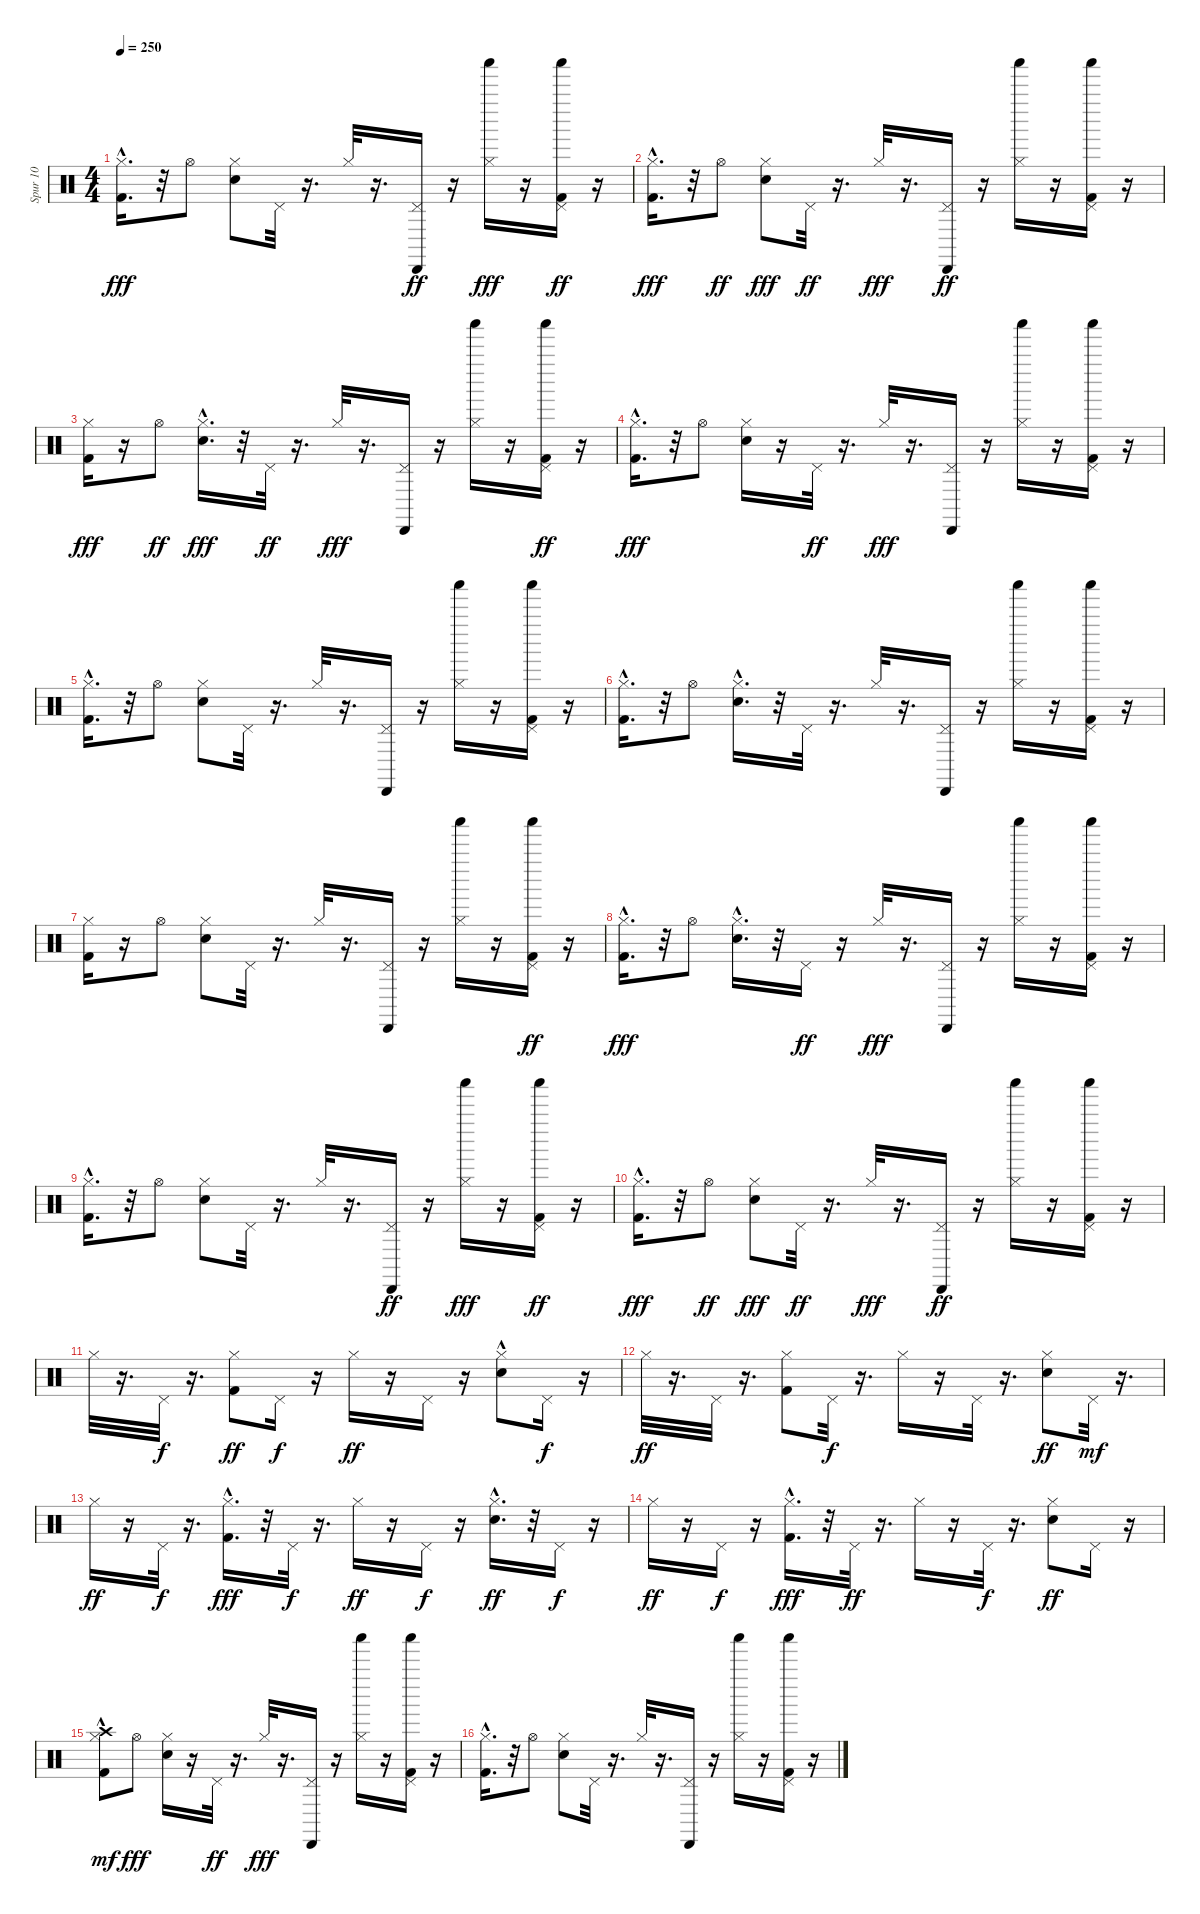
\track ("Spur 10" "Spur 10") {instrument percussion}
\staff {score}
\articulation defaults
\ts (4 4)
\tempo 250
\clef neutral
\ks c
("Kick (hit) 2"{hac} "Hi-Hat (closed)").16{d dy fff} r.32 "Hi-Hat (open)".8 ("Snare (hit) 2" "Hi-Hat (closed)").8 "Pedal Hi-Hat (hit)".32 r.16{d} "Hi-Hat (closed)".32 r.16{d} ("Pedal Hi-Hat (hit)" "Cabasa (hit)").16{dy ff} r.16 ("Hi-Hat (closed)" "Shaker (hit)").16{dy fff} r.16 ("Kick (hit) 2" "Pedal Hi-Hat (hit)" "Shaker (hit)").16{dy ff} r.16 |
("Kick (hit) 2"{hac} "Hi-Hat (closed)").16{d dy fff} r.32 "Hi-Hat (open)".8{dy ff} ("Snare (hit) 2" "Hi-Hat (closed)").8{dy fff} "Pedal Hi-Hat (hit)".32{dy ff} r.16{d} "Hi-Hat (closed)".32{dy fff} r.16{d} ("Pedal Hi-Hat (hit)" "Cabasa (hit)").16{dy ff} r.16 ("Hi-Hat (closed)" "Shaker (hit)").16 r.16 ("Kick (hit) 2" "Pedal Hi-Hat (hit)" "Shaker (hit)").16 r.16 |
("Kick (hit) 2" "Hi-Hat (closed)").16{dy fff} r.16 "Hi-Hat (open)".8{dy ff} ("Snare (hit) 2"{hac} "Hi-Hat (closed)").16{d dy fff} r.32 "Pedal Hi-Hat (hit)".32{dy ff} r.16{d} "Hi-Hat (closed)".32{dy fff} r.16{d} ("Pedal Hi-Hat (hit)" "Cabasa (hit)").16 r.16 ("Hi-Hat (closed)" "Shaker (hit)").16 r.16 ("Kick (hit) 2" "Pedal Hi-Hat (hit)" "Shaker (hit)").16{dy ff} r.16 |
("Kick (hit) 2"{hac} "Hi-Hat (closed)").16{d dy fff} r.32 "Hi-Hat (open)".8 ("Snare (hit) 2" "Hi-Hat (closed)").16 r.16 "Pedal Hi-Hat (hit)".32{dy ff} r.16{d} "Hi-Hat (closed)".32{dy fff} r.16{d} ("Pedal Hi-Hat (hit)" "Cabasa (hit)").16 r.16 ("Hi-Hat (closed)" "Shaker (hit)").16 r.16 ("Kick (hit) 2" "Pedal Hi-Hat (hit)" "Shaker (hit)").16 r.16 |
("Kick (hit) 2"{hac} "Hi-Hat (closed)").16{d} r.32 "Hi-Hat (open)".8 ("Snare (hit) 2" "Hi-Hat (closed)").8 "Pedal Hi-Hat (hit)".32 r.16{d} "Hi-Hat (closed)".32 r.16{d} ("Pedal Hi-Hat (hit)" "Cabasa (hit)").16 r.16 ("Hi-Hat (closed)" "Shaker (hit)").16 r.16 ("Kick (hit) 2" "Pedal Hi-Hat (hit)" "Shaker (hit)").16 r.16 |
("Kick (hit) 2"{hac} "Hi-Hat (closed)").16{d} r.32 "Hi-Hat (open)".8 ("Snare (hit) 2"{hac} "Hi-Hat (closed)").16{d} r.32 "Pedal Hi-Hat (hit)".32 r.16{d} "Hi-Hat (closed)".32 r.16{d} ("Pedal Hi-Hat (hit)" "Cabasa (hit)").16 r.16 ("Hi-Hat (closed)" "Shaker (hit)").16 r.16 ("Kick (hit) 2" "Pedal Hi-Hat (hit)" "Shaker (hit)").16 r.16 |
("Kick (hit) 2" "Hi-Hat (closed)").16 r.16 "Hi-Hat (open)".8 ("Snare (hit) 2" "Hi-Hat (closed)").8 "Pedal Hi-Hat (hit)".32 r.16{d} "Hi-Hat (closed)".32 r.16{d} ("Pedal Hi-Hat (hit)" "Cabasa (hit)").16 r.16 ("Hi-Hat (closed)" "Shaker (hit)").16 r.16 ("Kick (hit) 2" "Pedal Hi-Hat (hit)" "Shaker (hit)").16{dy ff} r.16 |
("Kick (hit) 2"{hac} "Hi-Hat (closed)").16{d dy fff} r.32 "Hi-Hat (open)".8 ("Snare (hit) 2"{hac} "Hi-Hat (closed)").16{d} r.32 "Pedal Hi-Hat (hit)".16{dy ff} r.16 "Hi-Hat (closed)".32{dy fff} r.16{d} ("Pedal Hi-Hat (hit)" "Cabasa (hit)").16 r.16 ("Hi-Hat (closed)" "Shaker (hit)").16 r.16 ("Kick (hit) 2" "Pedal Hi-Hat (hit)" "Shaker (hit)").16 r.16 |
("Kick (hit) 2"{hac} "Hi-Hat (closed)").16{d} r.32 "Hi-Hat (open)".8 ("Snare (hit) 2" "Hi-Hat (closed)").8 "Pedal Hi-Hat (hit)".32 r.16{d} "Hi-Hat (closed)".32 r.16{d} ("Pedal Hi-Hat (hit)" "Cabasa (hit)").16{dy ff} r.16 ("Hi-Hat (closed)" "Shaker (hit)").16{dy fff} r.16 ("Kick (hit) 2" "Pedal Hi-Hat (hit)" "Shaker (hit)").16{dy ff} r.16 |
("Kick (hit) 2"{hac} "Hi-Hat (closed)").16{d dy fff} r.32 "Hi-Hat (open)".8{dy ff} ("Snare (hit) 2" "Hi-Hat (closed)").8{dy fff} "Pedal Hi-Hat (hit)".32{dy ff} r.16{d} "Hi-Hat (closed)".32{dy fff} r.16{d} ("Pedal Hi-Hat (hit)" "Cabasa (hit)").16{dy ff} r.16 ("Hi-Hat (closed)" "Shaker (hit)").16 r.16 ("Kick (hit) 2" "Pedal Hi-Hat (hit)" "Shaker (hit)").16 r.16 |
"Hi-Hat (closed)".32 r.16{d} "Pedal Hi-Hat (hit)".32{dy f} r.16{d} ("Kick (hit) 2" "Hi-Hat (closed)").8{dy ff} "Pedal Hi-Hat (hit)".16{dy f} r.16 "Hi-Hat (closed)".16{dy ff} r.16 "Pedal Hi-Hat (hit)".16 r.16 ("Snare (hit) 2"{hac} "Hi-Hat (closed)").8 "Pedal Hi-Hat (hit)".16{dy f} r.16 |
"Hi-Hat (closed)".32{dy ff} r.16{d} "Pedal Hi-Hat (hit)".32 r.16{d} ("Kick (hit) 2" "Hi-Hat (closed)").8 "Pedal Hi-Hat (hit)".32{dy f} r.16{d} "Hi-Hat (closed)".16 r.16 "Pedal Hi-Hat (hit)".32 r.16{d} ("Snare (hit) 2" "Hi-Hat (closed)").8{dy ff} "Pedal Hi-Hat (hit)".32{dy mf} r.16{d} |
"Hi-Hat (closed)".16{dy ff} r.16 "Pedal Hi-Hat (hit)".32{dy f} r.16{d} ("Kick (hit) 2"{hac} "Hi-Hat (closed)").16{d dy fff} r.32 "Pedal Hi-Hat (hit)".32{dy f} r.16{d} "Hi-Hat (closed)".16{dy ff} r.16 "Pedal Hi-Hat (hit)".16{dy f} r.16 ("Snare (hit) 2"{hac} "Hi-Hat (closed)").16{d dy ff} r.32 "Pedal Hi-Hat (hit)".16{dy f} r.16 |
"Hi-Hat (closed)".16{dy ff} r.16 "Pedal Hi-Hat (hit)".16{dy f} r.16 ("Kick (hit) 2"{hac} "Hi-Hat (closed)").16{d dy fff} r.32 "Pedal Hi-Hat (hit)".32{dy ff} r.16{d} "Hi-Hat (closed)".16 r.16 "Pedal Hi-Hat (hit)".32{dy f} r.16{d} ("Snare (hit) 2" "Hi-Hat (closed)").8{dy ff} "Pedal Hi-Hat (hit)".16 r.16 |
("Kick (hit) 2"{hac} "Hi-Hat (closed)" "Crash high (hit)"{hac}).8{dy mf} "Hi-Hat (open)".8{dy fff} ("Snare (hit) 2" "Hi-Hat (closed)").16 r.16 "Pedal Hi-Hat (hit)".32{dy ff} r.16{d} "Hi-Hat (closed)".32{dy fff} r.16{d} ("Pedal Hi-Hat (hit)" "Cabasa (hit)").16 r.16 ("Hi-Hat (closed)" "Shaker (hit)").16 r.16 ("Kick (hit) 2" "Pedal Hi-Hat (hit)" "Shaker (hit)").16 r.16 |
("Kick (hit) 2"{hac} "Hi-Hat (closed)").16{d} r.32 "Hi-Hat (open)".8 ("Snare (hit) 2" "Hi-Hat (closed)").8 "Pedal Hi-Hat (hit)".32 r.16{d} "Hi-Hat (closed)".32 r.16{d} ("Pedal Hi-Hat (hit)" "Cabasa (hit)").16 r.16 ("Hi-Hat (closed)" "Shaker (hit)").16 r.16 ("Kick (hit) 2" "Pedal Hi-Hat (hit)" "Shaker (hit)").16 r.16
